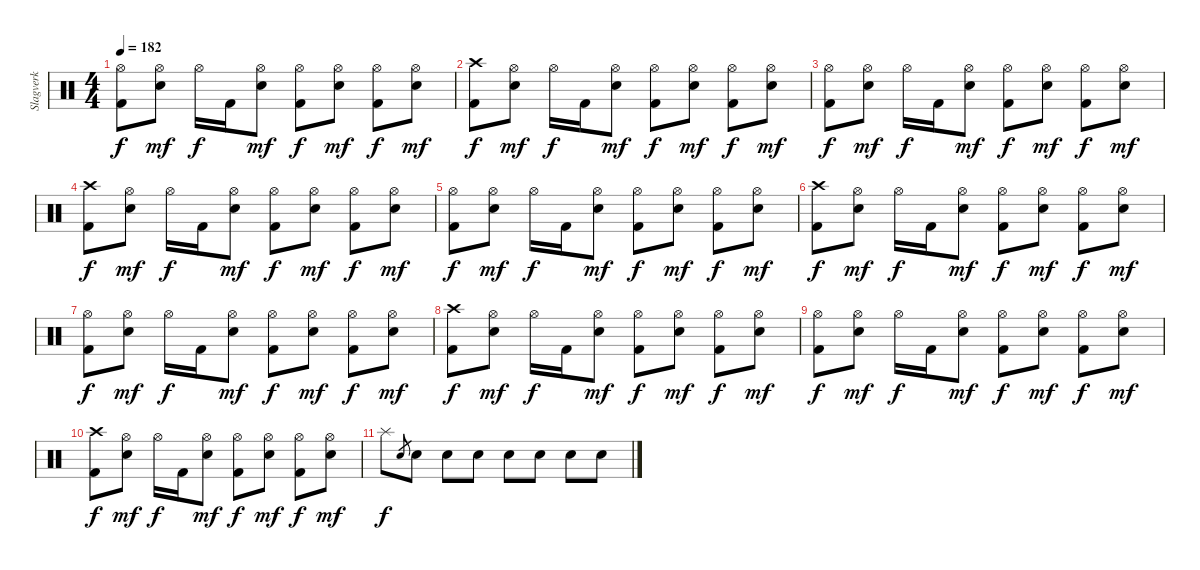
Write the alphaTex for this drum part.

\track ("Slagverk" "Slagverk") {instrument percussion}
\staff {score}
\articulation defaults
\ts (4 4)
\tempo 182
\clef neutral
\ks c
("Hi-Hat (open)" "Kick (hit) 2").8{dy f} ("Hi-Hat (open)" "Electric Snare (hit)").8{dy mf} "Hi-Hat (open)".16{dy f} "Kick (hit) 2".16 ("Hi-Hat (open)" "Electric Snare (hit)").8{dy mf} ("Hi-Hat (open)" "Kick (hit) 2").8{dy f} ("Hi-Hat (open)" "Electric Snare (hit)").8{dy mf} ("Hi-Hat (open)" "Kick (hit) 2").8{dy f} ("Hi-Hat (open)" "Electric Snare (hit)").8{dy mf} |
("Crash high (hit)" "Kick (hit) 2").8{dy f} ("Hi-Hat (open)" "Electric Snare (hit)").8{dy mf} "Hi-Hat (open)".16{dy f} "Kick (hit) 2".16 ("Hi-Hat (open)" "Electric Snare (hit)").8{dy mf} ("Hi-Hat (open)" "Kick (hit) 2").8{dy f} ("Hi-Hat (open)" "Electric Snare (hit)").8{dy mf} ("Hi-Hat (open)" "Kick (hit) 2").8{dy f} ("Hi-Hat (open)" "Electric Snare (hit)").8{dy mf} |
("Hi-Hat (open)" "Kick (hit) 2").8{dy f} ("Hi-Hat (open)" "Electric Snare (hit)").8{dy mf} "Hi-Hat (open)".16{dy f} "Kick (hit) 2".16 ("Hi-Hat (open)" "Electric Snare (hit)").8{dy mf} ("Hi-Hat (open)" "Kick (hit) 2").8{dy f} ("Hi-Hat (open)" "Electric Snare (hit)").8{dy mf} ("Hi-Hat (open)" "Kick (hit) 2").8{dy f} ("Hi-Hat (open)" "Electric Snare (hit)").8{dy mf} |
("Crash high (hit)" "Kick (hit) 2").8{dy f} ("Hi-Hat (open)" "Electric Snare (hit)").8{dy mf} "Hi-Hat (open)".16{dy f} "Kick (hit) 2".16 ("Hi-Hat (open)" "Electric Snare (hit)").8{dy mf} ("Hi-Hat (open)" "Kick (hit) 2").8{dy f} ("Hi-Hat (open)" "Electric Snare (hit)").8{dy mf} ("Hi-Hat (open)" "Kick (hit) 2").8{dy f} ("Hi-Hat (open)" "Electric Snare (hit)").8{dy mf} |
("Hi-Hat (open)" "Kick (hit) 2").8{dy f} ("Hi-Hat (open)" "Electric Snare (hit)").8{dy mf} "Hi-Hat (open)".16{dy f} "Kick (hit) 2".16 ("Hi-Hat (open)" "Electric Snare (hit)").8{dy mf} ("Hi-Hat (open)" "Kick (hit) 2").8{dy f} ("Hi-Hat (open)" "Electric Snare (hit)").8{dy mf} ("Hi-Hat (open)" "Kick (hit) 2").8{dy f} ("Hi-Hat (open)" "Electric Snare (hit)").8{dy mf} |
("Crash high (hit)" "Kick (hit) 2").8{dy f} ("Hi-Hat (open)" "Electric Snare (hit)").8{dy mf} "Hi-Hat (open)".16{dy f} "Kick (hit) 2".16 ("Hi-Hat (open)" "Electric Snare (hit)").8{dy mf} ("Hi-Hat (open)" "Kick (hit) 2").8{dy f} ("Hi-Hat (open)" "Electric Snare (hit)").8{dy mf} ("Hi-Hat (open)" "Kick (hit) 2").8{dy f} ("Hi-Hat (open)" "Electric Snare (hit)").8{dy mf} |
("Hi-Hat (open)" "Kick (hit) 2").8{dy f} ("Hi-Hat (open)" "Electric Snare (hit)").8{dy mf} "Hi-Hat (open)".16{dy f} "Kick (hit) 2".16 ("Hi-Hat (open)" "Electric Snare (hit)").8{dy mf} ("Hi-Hat (open)" "Kick (hit) 2").8{dy f} ("Hi-Hat (open)" "Electric Snare (hit)").8{dy mf} ("Hi-Hat (open)" "Kick (hit) 2").8{dy f} ("Hi-Hat (open)" "Electric Snare (hit)").8{dy mf} |
("Crash high (hit)" "Kick (hit) 2").8{dy f} ("Hi-Hat (open)" "Electric Snare (hit)").8{dy mf} "Hi-Hat (open)".16{dy f} "Kick (hit) 2".16 ("Hi-Hat (open)" "Electric Snare (hit)").8{dy mf} ("Hi-Hat (open)" "Kick (hit) 2").8{dy f} ("Hi-Hat (open)" "Electric Snare (hit)").8{dy mf} ("Hi-Hat (open)" "Kick (hit) 2").8{dy f} ("Hi-Hat (open)" "Electric Snare (hit)").8{dy mf} |
("Hi-Hat (open)" "Kick (hit) 2").8{dy f} ("Hi-Hat (open)" "Electric Snare (hit)").8{dy mf} "Hi-Hat (open)".16{dy f} "Kick (hit) 2".16 ("Hi-Hat (open)" "Electric Snare (hit)").8{dy mf} ("Hi-Hat (open)" "Kick (hit) 2").8{dy f} ("Hi-Hat (open)" "Electric Snare (hit)").8{dy mf} ("Hi-Hat (open)" "Kick (hit) 2").8{dy f} ("Hi-Hat (open)" "Electric Snare (hit)").8{dy mf} |
("Crash high (hit)" "Kick (hit) 2").8{dy f} ("Hi-Hat (open)" "Electric Snare (hit)").8{dy mf} "Hi-Hat (open)".16{dy f} "Kick (hit) 2".16 ("Hi-Hat (open)" "Electric Snare (hit)").8{dy mf} ("Hi-Hat (open)" "Kick (hit) 2").8{dy f} ("Hi-Hat (open)" "Electric Snare (hit)").8{dy mf} ("Hi-Hat (open)" "Kick (hit) 2").8{dy f} ("Hi-Hat (open)" "Electric Snare (hit)").8{dy mf} |
"Splash (hit)".8{dy f} "Electric Snare (hit)".8{gr} "Electric Snare (hit)".8 "Electric Snare (hit)".8 "Electric Snare (hit)".8 "Electric Snare (hit)".8 "Electric Snare (hit)".8 "Electric Snare (hit)".8 "Electric Snare (hit)".8
